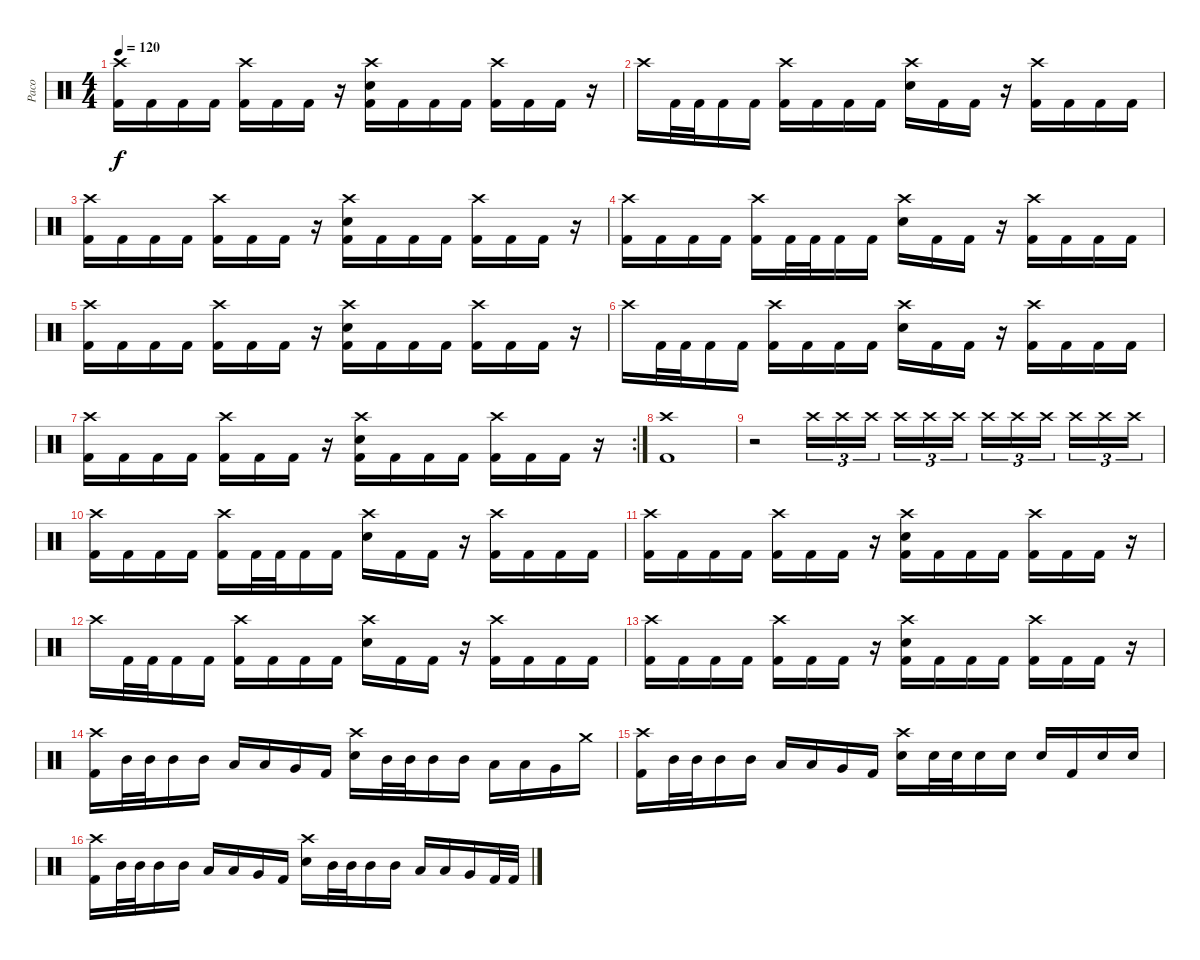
\track ("Paco" "Paco") {instrument percussion}
\staff {score}
\articulation defaults
\ts (4 4)
\tempo 120
\clef neutral
\ks c
("Crash high (hit)" "Kick (hit) 2").16{dy f} "Kick (hit) 2".16 "Kick (hit) 2".16 "Kick (hit) 2".16 ("Crash high (hit)" "Kick (hit) 2").16 "Kick (hit) 2".16 "Kick (hit) 2".16 r.16 ("Crash high (hit)" "Electric Snare (hit)" "Kick (hit) 2").16 "Kick (hit) 2".16 "Kick (hit) 2".16 "Kick (hit) 2".16 ("Crash high (hit)" "Kick (hit) 2").16 "Kick (hit) 2".16 "Kick (hit) 2".16 r.16 |
"Crash high (hit)".16 "Kick (hit) 2".32 "Kick (hit) 2".32 "Kick (hit) 2".16 "Kick (hit) 2".16 ("Crash high (hit)" "Kick (hit) 2").16 "Kick (hit) 2".16 "Kick (hit) 2".16 "Kick (hit) 2".16 ("Crash high (hit)" "Electric Snare (hit)").16 "Kick (hit) 2".16 "Kick (hit) 2".16 r.16 ("Crash high (hit)" "Kick (hit) 2").16 "Kick (hit) 2".16 "Kick (hit) 2".16 "Kick (hit) 2".16 |
("Crash high (hit)" "Kick (hit) 2").16 "Kick (hit) 2".16 "Kick (hit) 2".16 "Kick (hit) 2".16 ("Crash high (hit)" "Kick (hit) 2").16 "Kick (hit) 2".16 "Kick (hit) 2".16 r.16 ("Crash high (hit)" "Electric Snare (hit)" "Kick (hit) 2").16 "Kick (hit) 2".16 "Kick (hit) 2".16 "Kick (hit) 2".16 ("Crash high (hit)" "Kick (hit) 2").16 "Kick (hit) 2".16 "Kick (hit) 2".16 r.16 |
("Crash high (hit)" "Kick (hit) 2").16 "Kick (hit) 2".16 "Kick (hit) 2".16 "Kick (hit) 2".16 ("Crash high (hit)" "Kick (hit) 2").16 "Kick (hit) 2".32 "Kick (hit) 2".32 "Kick (hit) 2".16 "Kick (hit) 2".16 ("Crash high (hit)" "Electric Snare (hit)").16 "Kick (hit) 2".16 "Kick (hit) 2".16 r.16 ("Crash high (hit)" "Kick (hit) 2").16 "Kick (hit) 2".16 "Kick (hit) 2".16 "Kick (hit) 2".16 |
("Crash high (hit)" "Kick (hit) 2").16 "Kick (hit) 2".16 "Kick (hit) 2".16 "Kick (hit) 2".16 ("Crash high (hit)" "Kick (hit) 2").16 "Kick (hit) 2".16 "Kick (hit) 2".16 r.16 ("Crash high (hit)" "Electric Snare (hit)" "Kick (hit) 2").16 "Kick (hit) 2".16 "Kick (hit) 2".16 "Kick (hit) 2".16 ("Crash high (hit)" "Kick (hit) 2").16 "Kick (hit) 2".16 "Kick (hit) 2".16 r.16 |
"Crash high (hit)".16 "Kick (hit) 2".32 "Kick (hit) 2".32 "Kick (hit) 2".16 "Kick (hit) 2".16 ("Crash high (hit)" "Kick (hit) 2").16 "Kick (hit) 2".16 "Kick (hit) 2".16 "Kick (hit) 2".16 ("Crash high (hit)" "Electric Snare (hit)").16 "Kick (hit) 2".16 "Kick (hit) 2".16 r.16 ("Crash high (hit)" "Kick (hit) 2").16 "Kick (hit) 2".16 "Kick (hit) 2".16 "Kick (hit) 2".16 |
\rc 2
("Crash high (hit)" "Kick (hit) 2").16 "Kick (hit) 2".16 "Kick (hit) 2".16 "Kick (hit) 2".16 ("Crash high (hit)" "Kick (hit) 2").16 "Kick (hit) 2".16 "Kick (hit) 2".16 r.16 ("Crash high (hit)" "Electric Snare (hit)" "Kick (hit) 2").16 "Kick (hit) 2".16 "Kick (hit) 2".16 "Kick (hit) 2".16 ("Crash high (hit)" "Kick (hit) 2").16 "Kick (hit) 2".16 "Kick (hit) 2".16 r.16 |
("Crash high (hit)" "Kick (hit) 2").1 |
r.2{volume 3} "Crash high (hit)".16{tu (3 2) volume 13} "Crash high (hit)".16{tu (3 2)} "Crash high (hit)".16{tu (3 2) beam splitsecondary} "Crash high (hit)".16{tu (3 2)} "Crash high (hit)".16{tu (3 2)} "Crash high (hit)".16{tu (3 2)} "Crash high (hit)".16{tu (3 2)} "Crash high (hit)".16{tu (3 2)} "Crash high (hit)".16{tu (3 2) beam splitsecondary} "Crash high (hit)".16{tu (3 2)} "Crash high (hit)".16{tu (3 2)} "Crash high (hit)".16{tu (3 2)} |
("Crash high (hit)" "Kick (hit) 2").16 "Kick (hit) 2".16 "Kick (hit) 2".16 "Kick (hit) 2".16 ("Crash high (hit)" "Kick (hit) 2").16 "Kick (hit) 2".32 "Kick (hit) 2".32 "Kick (hit) 2".16 "Kick (hit) 2".16 ("Crash high (hit)" "Electric Snare (hit)").16 "Kick (hit) 2".16 "Kick (hit) 2".16 r.16 ("Crash high (hit)" "Kick (hit) 2").16 "Kick (hit) 2".16 "Kick (hit) 2".16 "Kick (hit) 2".16 |
("Crash high (hit)" "Kick (hit) 2").16 "Kick (hit) 2".16 "Kick (hit) 2".16 "Kick (hit) 2".16 ("Crash high (hit)" "Kick (hit) 2").16 "Kick (hit) 2".16 "Kick (hit) 2".16 r.16 ("Crash high (hit)" "Electric Snare (hit)" "Kick (hit) 2").16 "Kick (hit) 2".16 "Kick (hit) 2".16 "Kick (hit) 2".16 ("Crash high (hit)" "Kick (hit) 2").16 "Kick (hit) 2".16 "Kick (hit) 2".16 r.16 |
"Crash high (hit)".16 "Kick (hit) 2".32 "Kick (hit) 2".32 "Kick (hit) 2".16 "Kick (hit) 2".16 ("Crash high (hit)" "Kick (hit) 2").16 "Kick (hit) 2".16 "Kick (hit) 2".16 "Kick (hit) 2".16 ("Crash high (hit)" "Electric Snare (hit)").16 "Kick (hit) 2".16 "Kick (hit) 2".16 r.16 ("Crash high (hit)" "Kick (hit) 2").16 "Kick (hit) 2".16 "Kick (hit) 2".16 "Kick (hit) 2".16 |
("Crash high (hit)" "Kick (hit) 2").16 "Kick (hit) 2".16 "Kick (hit) 2".16 "Kick (hit) 2".16 ("Crash high (hit)" "Kick (hit) 2").16 "Kick (hit) 2".16 "Kick (hit) 2".16 r.16 ("Crash high (hit)" "Electric Snare (hit)" "Kick (hit) 2").16 "Kick (hit) 2".16 "Kick (hit) 2".16 "Kick (hit) 2".16 ("Crash high (hit)" "Kick (hit) 2").16 "Kick (hit) 2".16 "Kick (hit) 2".16 r.16 |
("Crash high (hit)" "Kick (hit) 2").16 "Mid Tom (hit)".32 "Mid Tom (hit)".32 "Mid Tom (hit)".16 "Mid Tom (hit)".16 "Low Tom (hit)".16 "Low Tom (hit)".16 "Very Low Tom (hit)".16 "Kick (hit) 2".16 ("Crash high (hit)" "Electric Snare (hit)").16 "Mid Tom (hit)".32 "Mid Tom (hit)".32 "Mid Tom (hit)".16 "Mid Tom (hit)".16 "Low Tom (hit)".16 "Low Tom (hit)".16 "Very Low Tom (hit)".16 "Crash medium (hit)".16 |
("Crash high (hit)" "Kick (hit) 2").16 "Mid Tom (hit)".32 "Mid Tom (hit)".32 "Mid Tom (hit)".16 "Mid Tom (hit)".16 "Low Tom (hit)".16 "Low Tom (hit)".16 "Very Low Tom (hit)".16 "Kick (hit) 2".16 ("Crash high (hit)" "Electric Snare (hit)").16 "Electric Snare (hit)".32 "Electric Snare (hit)".32 "Electric Snare (hit)".16 "Electric Snare (hit)".16 "Electric Snare (hit)".16 "Kick (hit) 2".16 "Electric Snare (hit)".16 "Electric Snare (hit)".16 |
("Crash high (hit)" "Kick (hit) 2").16 "Mid Tom (hit)".32 "Mid Tom (hit)".32 "Mid Tom (hit)".16 "Mid Tom (hit)".16 "Low Tom (hit)".16 "Low Tom (hit)".16 "Very Low Tom (hit)".16 "Kick (hit) 2".16 ("Crash high (hit)" "Electric Snare (hit)").16 "Mid Tom (hit)".32 "Mid Tom (hit)".32 "Mid Tom (hit)".16 "Mid Tom (hit)".16 "Low Tom (hit)".16 "Low Tom (hit)".16 "Very Low Tom (hit)".16 "Kick (hit) 2".32 "Kick (hit) 2".32
